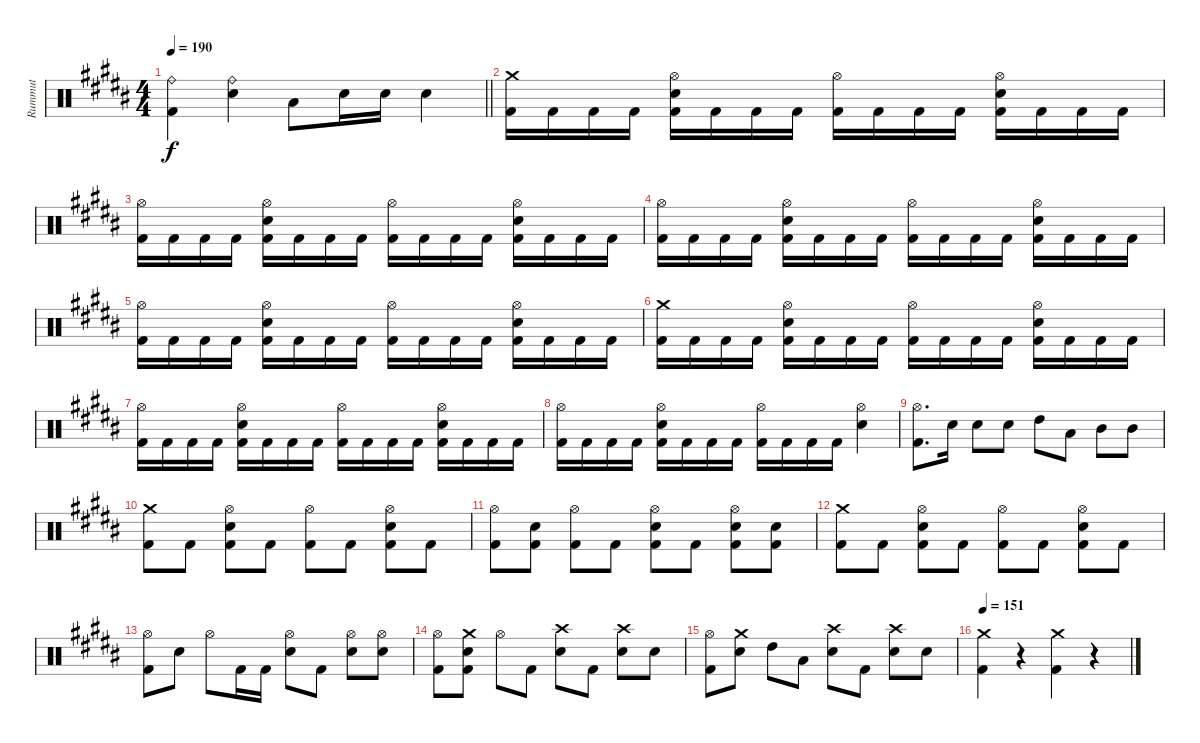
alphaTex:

\track ("Rummut" "Rummut") {instrument percussion}
\staff {score}
\articulation defaults
\ts (4 4)
\tempo 190
\clef neutral
\barLineRight lightlight
\ks b
("Ride (bell)" "Kick (hit) 2").4{dy f} ("Ride (bell)" "Snare (hit) 2").4 "Low Tom (hit)".8 "Snare (hit) 2".16 "Snare (hit) 2".16 "Snare (hit) 2".4 |
("Crash medium (hit)" "Kick (hit) 2").16 "Kick (hit) 2".16 "Kick (hit) 2".16 "Kick (hit) 2".16 ("Hi-Hat (open)" "Snare (hit) 2" "Kick (hit) 2").16 "Kick (hit) 2".16 "Kick (hit) 2".16 "Kick (hit) 2".16 ("Hi-Hat (open)" "Kick (hit) 2").16 "Kick (hit) 2".16 "Kick (hit) 2".16 "Kick (hit) 2".16 ("Hi-Hat (open)" "Snare (hit) 2" "Kick (hit) 2").16 "Kick (hit) 2".16 "Kick (hit) 2".16 "Kick (hit) 2".16 |
("Hi-Hat (open)" "Kick (hit) 2").16 "Kick (hit) 2".16 "Kick (hit) 2".16 "Kick (hit) 2".16 ("Hi-Hat (open)" "Snare (hit) 2" "Kick (hit) 2").16 "Kick (hit) 2".16 "Kick (hit) 2".16 "Kick (hit) 2".16 ("Hi-Hat (open)" "Kick (hit) 2").16 "Kick (hit) 2".16 "Kick (hit) 2".16 "Kick (hit) 2".16 ("Hi-Hat (open)" "Snare (hit) 2" "Kick (hit) 2").16 "Kick (hit) 2".16 "Kick (hit) 2".16 "Kick (hit) 2".16 |
("Hi-Hat (open)" "Kick (hit) 2").16 "Kick (hit) 2".16 "Kick (hit) 2".16 "Kick (hit) 2".16 ("Hi-Hat (open)" "Snare (hit) 2" "Kick (hit) 2").16 "Kick (hit) 2".16 "Kick (hit) 2".16 "Kick (hit) 2".16 ("Hi-Hat (open)" "Kick (hit) 2").16 "Kick (hit) 2".16 "Kick (hit) 2".16 "Kick (hit) 2".16 ("Hi-Hat (open)" "Snare (hit) 2" "Kick (hit) 2").16 "Kick (hit) 2".16 "Kick (hit) 2".16 "Kick (hit) 2".16 |
("Hi-Hat (open)" "Kick (hit) 2").16 "Kick (hit) 2".16 "Kick (hit) 2".16 "Kick (hit) 2".16 ("Hi-Hat (open)" "Snare (hit) 2" "Kick (hit) 2").16 "Kick (hit) 2".16 "Kick (hit) 2".16 "Kick (hit) 2".16 ("Hi-Hat (open)" "Kick (hit) 2").16 "Kick (hit) 2".16 "Kick (hit) 2".16 "Kick (hit) 2".16 ("Hi-Hat (open)" "Snare (hit) 2" "Kick (hit) 2").16 "Kick (hit) 2".16 "Kick (hit) 2".16 "Kick (hit) 2".16 |
("Crash medium (hit)" "Kick (hit) 2").16 "Kick (hit) 2".16 "Kick (hit) 2".16 "Kick (hit) 2".16 ("Hi-Hat (open)" "Snare (hit) 2" "Kick (hit) 2").16 "Kick (hit) 2".16 "Kick (hit) 2".16 "Kick (hit) 2".16 ("Hi-Hat (open)" "Kick (hit) 2").16 "Kick (hit) 2".16 "Kick (hit) 2".16 "Kick (hit) 2".16 ("Hi-Hat (open)" "Snare (hit) 2" "Kick (hit) 2").16 "Kick (hit) 2".16 "Kick (hit) 2".16 "Kick (hit) 2".16 |
("Hi-Hat (open)" "Kick (hit) 2").16 "Kick (hit) 2".16 "Kick (hit) 2".16 "Kick (hit) 2".16 ("Hi-Hat (open)" "Snare (hit) 2" "Kick (hit) 2").16 "Kick (hit) 2".16 "Kick (hit) 2".16 "Kick (hit) 2".16 ("Hi-Hat (open)" "Kick (hit) 2").16 "Kick (hit) 2".16 "Kick (hit) 2".16 "Kick (hit) 2".16 ("Hi-Hat (open)" "Snare (hit) 2" "Kick (hit) 2").16 "Kick (hit) 2".16 "Kick (hit) 2".16 "Kick (hit) 2".16 |
("Hi-Hat (open)" "Kick (hit) 2").16 "Kick (hit) 2".16 "Kick (hit) 2".16 "Kick (hit) 2".16 ("Hi-Hat (open)" "Snare (hit) 2" "Kick (hit) 2").16 "Kick (hit) 2".16 "Kick (hit) 2".16 "Kick (hit) 2".16 ("Hi-Hat (open)" "Kick (hit) 2").16 "Kick (hit) 2".16 "Kick (hit) 2".16 "Kick (hit) 2".16 ("Hi-Hat (open)" "Snare (hit) 2").4 |
("Hi-Hat (open)" "Kick (hit) 2").8{d} "Snare (hit) 2".16 "Snare (hit) 2".8 "Snare (hit) 2".8 "High Tom (hit)".8 "Low Tom (hit)".8 "Mid Tom (hit)".8 "Mid Tom (hit)".8 |
("Crash medium (hit)" "Kick (hit) 2").8 "Kick (hit) 2".8 ("Hi-Hat (open)" "Snare (hit) 2" "Kick (hit) 2").8 "Kick (hit) 2".8 ("Hi-Hat (open)" "Kick (hit) 2").8 "Kick (hit) 2".8 ("Hi-Hat (open)" "Snare (hit) 2" "Kick (hit) 2").8 "Kick (hit) 2".8 |
("Hi-Hat (open)" "Kick (hit) 2").8 ("Snare (hit) 2" "Kick (hit) 2").8 ("Hi-Hat (open)" "Kick (hit) 2").8 "Kick (hit) 2".8 ("Hi-Hat (open)" "Snare (hit) 2" "Kick (hit) 2").8 "Kick (hit) 2".8 ("Hi-Hat (open)" "Snare (hit) 2" "Kick (hit) 2").8 ("Snare (hit) 2" "Kick (hit) 2").8 |
("Crash medium (hit)" "Kick (hit) 2").8 "Kick (hit) 2".8 ("Hi-Hat (open)" "Snare (hit) 2" "Kick (hit) 2").8 "Kick (hit) 2".8 ("Hi-Hat (open)" "Kick (hit) 2").8 "Kick (hit) 2".8 ("Hi-Hat (open)" "Snare (hit) 2" "Kick (hit) 2").8 "Kick (hit) 2".8 |
("Hi-Hat (open)" "Kick (hit) 2").8 "Snare (hit) 2".8 "Hi-Hat (open)".8 "Kick (hit) 2".16 "Kick (hit) 2".16 ("Hi-Hat (open)" "Snare (hit) 2").8 "Kick (hit) 2".8 ("Hi-Hat (open)" "Snare (hit) 2").8 ("Hi-Hat (open)" "Snare (hit) 2").8 |
("Hi-Hat (open)" "Kick (hit) 2").8 ("Crash medium (hit)" "Snare (hit) 2" "Kick (hit) 2").8 "Hi-Hat (open)".8 "Kick (hit) 2".8 ("Crash high (hit)" "Snare (hit) 2").8 "Kick (hit) 2".8 ("Crash high (hit)" "Snare (hit) 2").8 "Snare (hit) 2".8 |
("Hi-Hat (open)" "Kick (hit) 2").8 ("Crash medium (hit)" "Snare (hit) 2").8 "High Tom (hit)".8 "Low Tom (hit)".8 ("Crash high (hit)" "Snare (hit) 2").8 "Kick (hit) 2".8 ("Crash high (hit)" "Snare (hit) 2").8 "Snare (hit) 2".8 |
\tempo 151
("Crash medium (hit)" "Kick (hit) 2").4 r.4 ("Crash medium (hit)" "Kick (hit) 2").4 r.4
